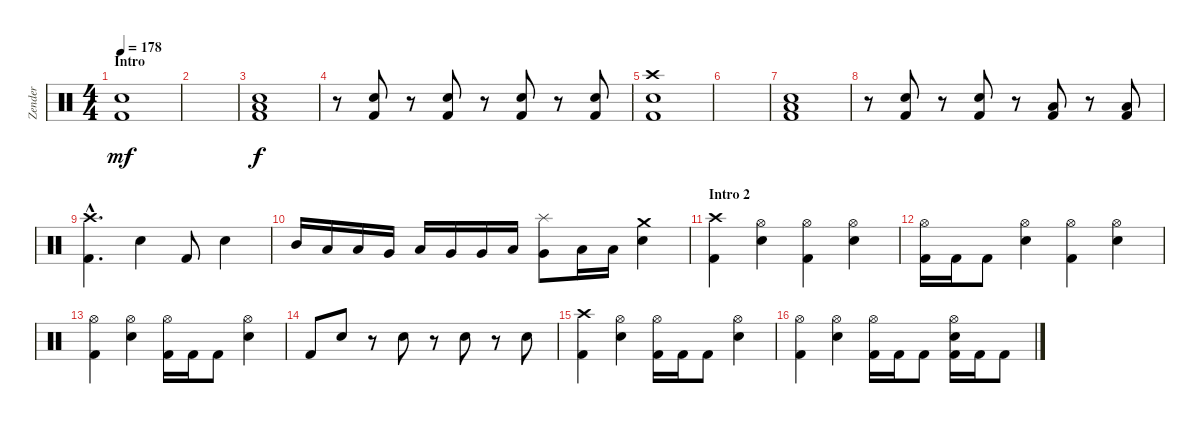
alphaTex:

\track ("Zender" "Zender") {instrument percussion}
\staff {score}
\articulation defaults
\ts (4 4)
\section ("" "Intro")
\tempo 178
\clef neutral
\ks c
("Electric Snare (hit)" "Kick (hit) 2").1{dy mf} |
|
("Low Floor Tom (hit)" "Electric Snare (hit)" "Kick (hit) 2").1{dy f} |
r.8 ("Electric Snare (hit)" "Kick (hit) 2").8 r.8 ("Electric Snare (hit)" "Kick (hit) 2").8 r.8 ("Electric Snare (hit)" "Kick (hit) 2").8 r.8 ("Electric Snare (hit)" "Kick (hit) 2").8 |
("Crash high (hit)" "Electric Snare (hit)" "Kick (hit) 2").1 |
|
("Low Floor Tom (hit)" "Electric Snare (hit)" "Kick (hit) 2").1 |
r.8 ("Electric Snare (hit)" "Kick (hit) 2").8 r.8 ("Electric Snare (hit)" "Kick (hit) 2").8 r.8 ("Low Tom (hit)" "Kick (hit) 2").8 r.8 ("Low Tom (hit)" "Kick (hit) 2").8 |
("Crash high (hit)"{hac} "Kick (hit) 2"{hac}).4{d} "Electric Snare (hit)".4 "Kick (hit) 2".8 "Electric Snare (hit)".4 |
"Mid Tom (hit)".16 "Low Tom (hit)".16 "Low Tom (hit)".16 "Very Low Tom (hit)".16 "Low Tom (hit)".16 "Very Low Tom (hit)".16 "Very Low Tom (hit)".16 "Low Floor Tom (hit)".16 ("Splash (hit)" "Very Low Tom (hit)").8 "Low Floor Tom (hit)".16 "Low Floor Tom (hit)".16 ("Crash medium (hit)" "Electric Snare (hit)").4 |
\section ("" "Intro 2")
("Crash high (hit)" "Kick (hit) 2").4 ("Hi-Hat (open)" "Electric Snare (hit)").4 ("Hi-Hat (open)" "Kick (hit) 2").4 ("Hi-Hat (open)" "Electric Snare (hit)").4 |
("Hi-Hat (open)" "Kick (hit) 2").16 "Kick (hit) 2".16 "Kick (hit) 2".8 ("Hi-Hat (open)" "Electric Snare (hit)").4 ("Hi-Hat (open)" "Kick (hit) 2").4 ("Hi-Hat (open)" "Electric Snare (hit)").4 |
("Hi-Hat (open)" "Kick (hit) 2").4 ("Hi-Hat (open)" "Electric Snare (hit)").4 ("Hi-Hat (open)" "Kick (hit) 2").16 "Kick (hit) 2".16 "Kick (hit) 2".8 ("Hi-Hat (open)" "Electric Snare (hit)").4 |
"Kick (hit) 2".8 "Electric Snare (hit)".8 r.8 "Electric Snare (hit)".8 r.8 "Electric Snare (hit)".8 r.8 "Electric Snare (hit)".8 |
("Crash high (hit)" "Kick (hit) 2").4 ("Hi-Hat (open)" "Electric Snare (hit)").4 ("Hi-Hat (open)" "Kick (hit) 2").16 "Kick (hit) 2".16 "Kick (hit) 2".8 ("Hi-Hat (open)" "Electric Snare (hit)").4 |
("Hi-Hat (open)" "Kick (hit) 2").4 ("Hi-Hat (open)" "Electric Snare (hit)").4 ("Hi-Hat (open)" "Kick (hit) 2").16 "Kick (hit) 2".16 "Kick (hit) 2".8 ("Hi-Hat (open)" "Electric Snare (hit)" "Kick (hit) 2").16 "Kick (hit) 2".16 "Kick (hit) 2".8
